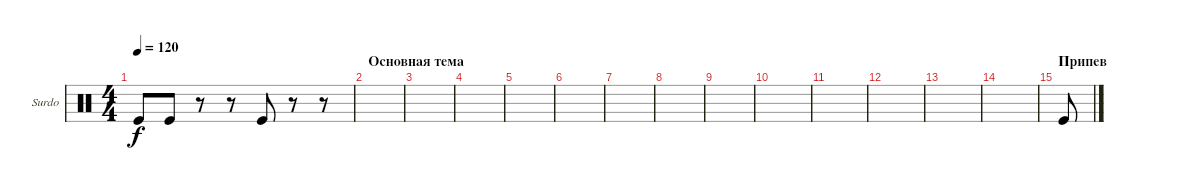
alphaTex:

\defaultSystemsLayout 4
\bracketExtendMode groupsimilarinstruments
\firstSystemTrackNameOrientation horizontal
\otherSystemsTrackNameOrientation horizontal
\track ("Surdo" "Surdo") {instrument percussion}
\staff {score}
\articulation defaults
\ts (4 4)
\tempo 120
\clef neutral
\ks c "Kick (hit)".8{dy f} "Kick (hit)".8
r.8 r.8 "Kick (hit)".8 r.8 r.8 |
\section ("" "Основная тема")
|
|
|
|
|
|
|
|
|
|
|
|
|
\section ("" "Припев")
"Kick (hit)".8
